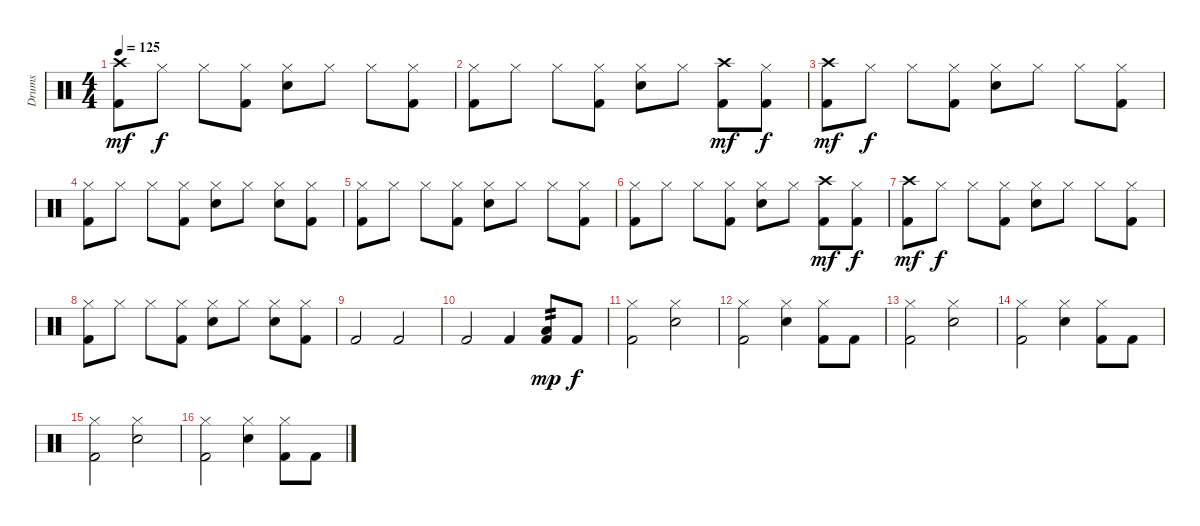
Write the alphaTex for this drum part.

\track ("Drums" "Drums") {instrument percussion}
\staff {score}
\articulation defaults
\ts (4 4)
\tempo 125
\clef neutral
\ks c
("Crash high (hit)" "Kick (hit) 2").8{dy mf} "Hi-Hat (closed)".8{dy f} "Hi-Hat (closed)".8 ("Hi-Hat (closed)" "Kick (hit) 2").8 ("Hi-Hat (closed)" "Snare (hit) 2").8 "Hi-Hat (closed)".8 "Hi-Hat (closed)".8 ("Hi-Hat (closed)" "Kick (hit) 2").8 |
("Hi-Hat (closed)" "Kick (hit) 2").8 "Hi-Hat (closed)".8 "Hi-Hat (closed)".8 ("Hi-Hat (closed)" "Kick (hit) 2").8 ("Hi-Hat (closed)" "Snare (hit) 2").8 "Hi-Hat (closed)".8 ("Crash high (hit)" "Kick (hit) 2").8{dy mf} ("Hi-Hat (closed)" "Kick (hit) 2").8{dy f} |
("Crash high (hit)" "Kick (hit) 2").8{dy mf} "Hi-Hat (closed)".8{dy f} "Hi-Hat (closed)".8 ("Hi-Hat (closed)" "Kick (hit) 2").8 ("Hi-Hat (closed)" "Snare (hit) 2").8 "Hi-Hat (closed)".8 "Hi-Hat (closed)".8 ("Hi-Hat (closed)" "Kick (hit) 2").8 |
("Hi-Hat (closed)" "Kick (hit) 2").8 "Hi-Hat (closed)".8 "Hi-Hat (closed)".8 ("Hi-Hat (closed)" "Kick (hit) 2").8 ("Hi-Hat (closed)" "Snare (hit) 2").8 "Hi-Hat (closed)".8 ("Hi-Hat (closed)" "Snare (hit) 2").8 ("Hi-Hat (closed)" "Kick (hit) 2").8 |
("Hi-Hat (closed)" "Kick (hit) 2").8 "Hi-Hat (closed)".8 "Hi-Hat (closed)".8 ("Hi-Hat (closed)" "Kick (hit) 2").8 ("Hi-Hat (closed)" "Snare (hit) 2").8 "Hi-Hat (closed)".8 "Hi-Hat (closed)".8 ("Hi-Hat (closed)" "Kick (hit) 2").8 |
("Hi-Hat (closed)" "Kick (hit) 2").8 "Hi-Hat (closed)".8 "Hi-Hat (closed)".8 ("Hi-Hat (closed)" "Kick (hit) 2").8 ("Hi-Hat (closed)" "Snare (hit) 2").8 "Hi-Hat (closed)".8 ("Crash high (hit)" "Kick (hit) 2").8{dy mf} ("Hi-Hat (closed)" "Kick (hit) 2").8{dy f} |
("Crash high (hit)" "Kick (hit) 2").8{dy mf} "Hi-Hat (closed)".8{dy f} "Hi-Hat (closed)".8 ("Hi-Hat (closed)" "Kick (hit) 2").8 ("Hi-Hat (closed)" "Snare (hit) 2").8 "Hi-Hat (closed)".8 "Hi-Hat (closed)".8 ("Hi-Hat (closed)" "Kick (hit) 2").8 |
("Hi-Hat (closed)" "Kick (hit) 2").8 "Hi-Hat (closed)".8 "Hi-Hat (closed)".8 ("Hi-Hat (closed)" "Kick (hit) 2").8 ("Hi-Hat (closed)" "Snare (hit) 2").8 "Hi-Hat (closed)".8 ("Hi-Hat (closed)" "Snare (hit) 2").8 ("Hi-Hat (closed)" "Kick (hit) 2").8 |
"Kick (hit) 2".2 "Kick (hit) 2".2 |
"Kick (hit) 2".2 "Kick (hit) 2".4 ("Low Tom (hit)" "Kick (hit) 2").8{tp 2 dy mp} "Kick (hit) 2".8{dy f} |
("Hi-Hat (closed)" "Kick (hit) 2").2 ("Hi-Hat (closed)" "Snare (hit) 2").2 |
("Hi-Hat (closed)" "Kick (hit) 2").2 ("Hi-Hat (closed)" "Snare (hit) 2").4 ("Hi-Hat (closed)" "Kick (hit) 2").8 "Kick (hit) 2".8 |
("Hi-Hat (closed)" "Kick (hit) 2").2 ("Hi-Hat (closed)" "Snare (hit) 2").2 |
("Hi-Hat (closed)" "Kick (hit) 2").2 ("Hi-Hat (closed)" "Snare (hit) 2").4 ("Hi-Hat (closed)" "Kick (hit) 2").8 "Kick (hit) 2".8 |
("Hi-Hat (closed)" "Kick (hit) 2").2 ("Hi-Hat (closed)" "Snare (hit) 2").2 |
("Hi-Hat (closed)" "Kick (hit) 2").2 ("Hi-Hat (closed)" "Snare (hit) 2").4 ("Hi-Hat (closed)" "Kick (hit) 2").8 "Kick (hit) 2".8
